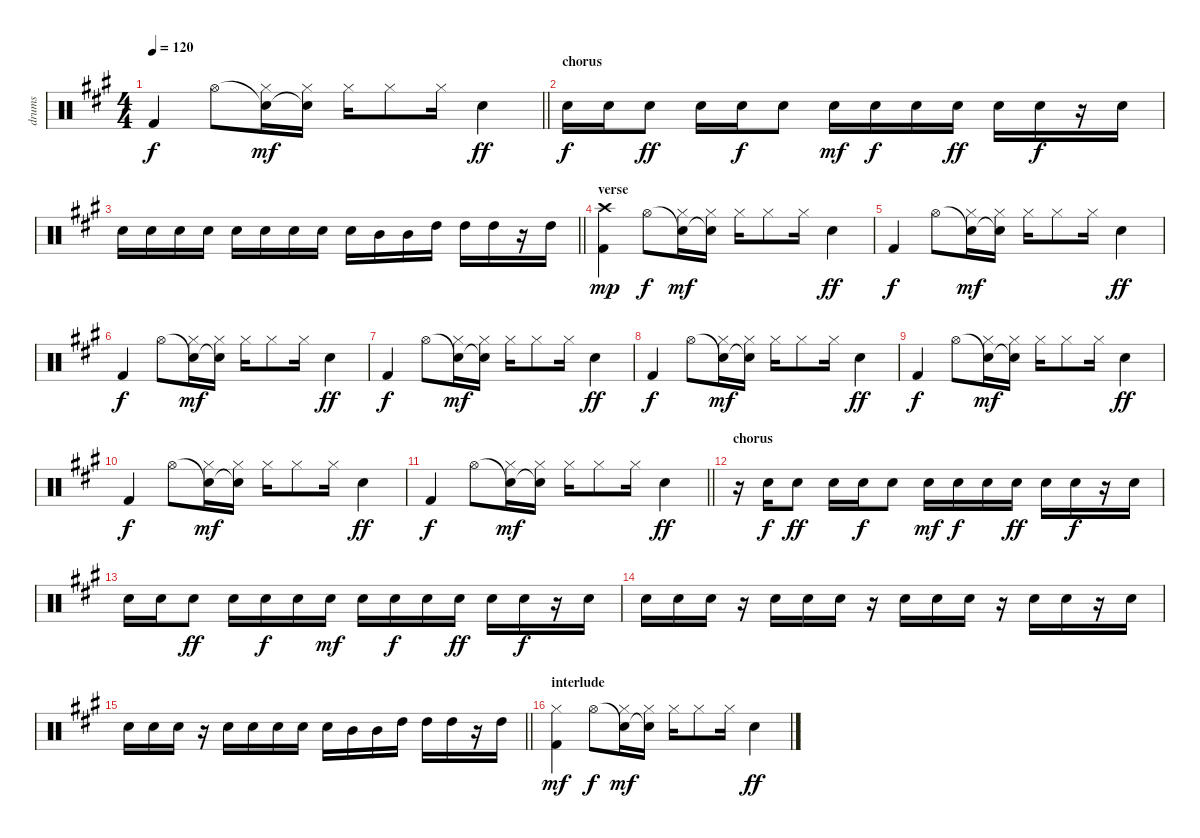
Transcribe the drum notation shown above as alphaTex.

\track ("drums" "drums") {instrument percussion}
\staff {score}
\articulation defaults
\ts (4 4)
\tempo 120
\clef neutral
\barLineRight lightlight
\ks a "Kick (hit) 2".4{dy f} "Hi-Hat (open)".8
("Snare (hit)"{t} "Hi-Hat (closed)").16{dy mf} ("Snare (hit)"{t} "Hi-Hat (closed)").16 "Hi-Hat (closed)".16 "Hi-Hat (closed)".8 "Hi-Hat (closed)".16 "Electric Snare (hit)".4{dy ff} |
\section ("" "chorus")
"Electric Snare (hit)".16{dy f} "Electric Snare (hit)".16 "Electric Snare (hit)".8{dy ff} "Electric Snare (hit)".16 "Electric Snare (hit)".16{dy f} "Electric Snare (hit)".8 "Electric Snare (hit)".16{dy mf} "Electric Snare (hit)".16{dy f} "Electric Snare (hit)".16 "Electric Snare (hit)".16{dy ff} "Electric Snare (hit)".16 "Electric Snare (hit)".16{dy f} r.16 "Electric Snare (hit)".16 |
\barLineRight lightlight "Electric Snare (hit)".16 "Electric Snare (hit)".16 "Electric Snare (hit)".16 "Electric Snare (hit)".16 "Electric Snare (hit)".16 "Electric Snare (hit)".16 "Electric Snare (hit)".16 "Electric Snare (hit)".16 "Electric Snare (hit)".16 "Mid Tom (hit)".16 "Mid Tom (hit)".16 "High Tom (hit)".16 "High Tom (hit)".16 "High Tom (hit)".16
r.16 "High Tom (hit)".16 |
\section ("" "verse")
("Crash high (hit)" "Kick (hit) 2").4{dy mp} "Hi-Hat (open)".8{dy f} ("Snare (hit)"{t} "Hi-Hat (closed)").16{dy mf} ("Snare (hit)"{t} "Hi-Hat (closed)").16 "Hi-Hat (closed)".16 "Hi-Hat (closed)".8 "Hi-Hat (closed)".16 "Electric Snare (hit)".4{dy ff} |
"Kick (hit) 2".4{dy f} "Hi-Hat (open)".8 ("Snare (hit)"{t} "Hi-Hat (closed)").16{dy mf} ("Snare (hit)"{t} "Hi-Hat (closed)").16 "Hi-Hat (closed)".16 "Hi-Hat (closed)".8 "Hi-Hat (closed)".16 "Electric Snare (hit)".4{dy ff} |
"Kick (hit) 2".4{dy f} "Hi-Hat (open)".8 ("Snare (hit)"{t} "Hi-Hat (closed)").16{dy mf} ("Snare (hit)"{t} "Hi-Hat (closed)").16 "Hi-Hat (closed)".16 "Hi-Hat (closed)".8 "Hi-Hat (closed)".16 "Electric Snare (hit)".4{dy ff} |
"Kick (hit) 2".4{dy f} "Hi-Hat (open)".8 ("Snare (hit)"{t} "Hi-Hat (closed)").16{dy mf} ("Snare (hit)"{t} "Hi-Hat (closed)").16 "Hi-Hat (closed)".16 "Hi-Hat (closed)".8 "Hi-Hat (closed)".16 "Electric Snare (hit)".4{dy ff} |
"Kick (hit) 2".4{dy f} "Hi-Hat (open)".8 ("Snare (hit)"{t} "Hi-Hat (closed)").16{dy mf} ("Snare (hit)"{t} "Hi-Hat (closed)").16 "Hi-Hat (closed)".16 "Hi-Hat (closed)".8 "Hi-Hat (closed)".16 "Electric Snare (hit)".4{dy ff} |
"Kick (hit) 2".4{dy f} "Hi-Hat (open)".8 ("Snare (hit)"{t} "Hi-Hat (closed)").16{dy mf} ("Snare (hit)"{t} "Hi-Hat (closed)").16 "Hi-Hat (closed)".16 "Hi-Hat (closed)".8 "Hi-Hat (closed)".16 "Electric Snare (hit)".4{dy ff} |
"Kick (hit) 2".4{dy f} "Hi-Hat (open)".8 ("Snare (hit)"{t} "Hi-Hat (closed)").16{dy mf} ("Snare (hit)"{t} "Hi-Hat (closed)").16 "Hi-Hat (closed)".16 "Hi-Hat (closed)".8 "Hi-Hat (closed)".16 "Electric Snare (hit)".4{dy ff} |
\barLineRight lightlight "Kick (hit) 2".4{dy f} "Hi-Hat (open)".8
("Snare (hit)"{t} "Hi-Hat (closed)").16{dy mf} ("Snare (hit)"{t} "Hi-Hat (closed)").16 "Hi-Hat (closed)".16 "Hi-Hat (closed)".8 "Hi-Hat (closed)".16 "Electric Snare (hit)".4{dy ff} |
\section ("" "chorus")
r.16 "Electric Snare (hit)".16{dy f} "Electric Snare (hit)".8{dy ff} "Electric Snare (hit)".16 "Electric Snare (hit)".16{dy f} "Electric Snare (hit)".8 "Electric Snare (hit)".16{dy mf} "Electric Snare (hit)".16{dy f} "Electric Snare (hit)".16 "Electric Snare (hit)".16{dy ff} "Electric Snare (hit)".16 "Electric Snare (hit)".16{dy f} r.16 "Electric Snare (hit)".16 |
"Electric Snare (hit)".16 "Electric Snare (hit)".16 "Electric Snare (hit)".8{dy ff} "Electric Snare (hit)".16 "Electric Snare (hit)".16{dy f} "Electric Snare (hit)".16 "Electric Snare (hit)".16{dy mf} "Electric Snare (hit)".16 "Electric Snare (hit)".16{dy f} "Electric Snare (hit)".16 "Electric Snare (hit)".16{dy ff} "Electric Snare (hit)".16 "Electric Snare (hit)".16{dy f} r.16 "Electric Snare (hit)".16 |
"Electric Snare (hit)".16 "Electric Snare (hit)".16 "Electric Snare (hit)".16 r.16 "Electric Snare (hit)".16 "Electric Snare (hit)".16 "Electric Snare (hit)".16 r.16 "Electric Snare (hit)".16 "Electric Snare (hit)".16 "Electric Snare (hit)".16 r.16 "Electric Snare (hit)".16 "Electric Snare (hit)".16 r.16 "Electric Snare (hit)".16 |
\barLineRight lightlight "Electric Snare (hit)".16 "Electric Snare (hit)".16 "Electric Snare (hit)".16
r.16 "Electric Snare (hit)".16 "Electric Snare (hit)".16 "Electric Snare (hit)".16 "Electric Snare (hit)".16 "Electric Snare (hit)".16 "Mid Tom (hit)".16 "Mid Tom (hit)".16 "High Tom (hit)".16 "High Tom (hit)".16 "High Tom (hit)".16 r.16 "High Tom (hit)".16 |
\section ("" "interlude")
("Hi-Hat (closed)" "Kick (hit) 2").4{dy mf} "Hi-Hat (open)".8{dy f} ("Snare (hit)"{t} "Hi-Hat (closed)").16{dy mf} ("Snare (hit)"{t} "Hi-Hat (closed)").16 "Hi-Hat (closed)".16 "Hi-Hat (closed)".8 "Hi-Hat (closed)".16 "Electric Snare (hit)".4{dy ff}
